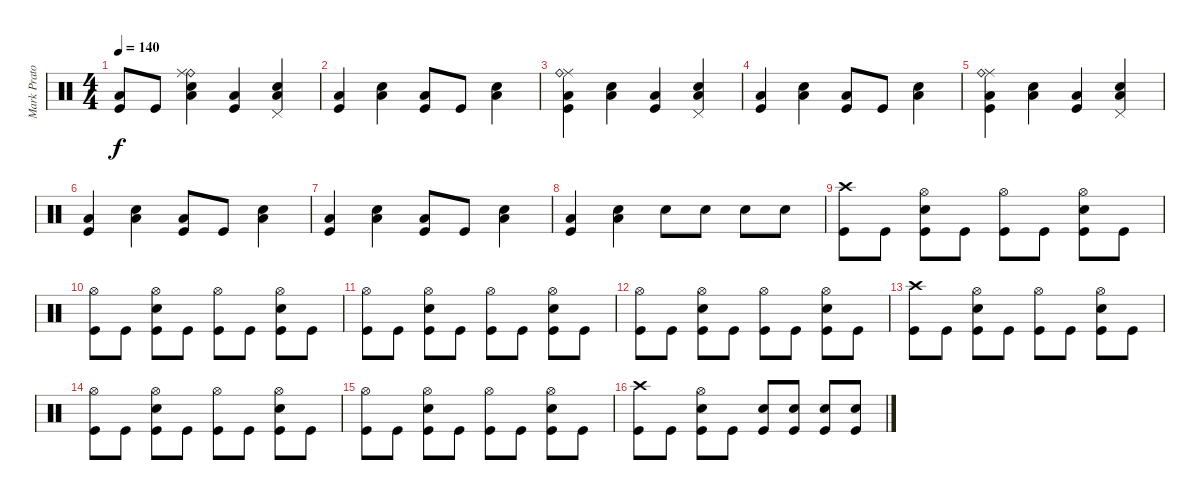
\track ("Mark Prator" "Mark Prato") {instrument percussion}
\staff {score}
\articulation defaults
\ts (4 4)
\tempo 140
\clef neutral
\ks c
("Low Floor Tom (hit)" "Kick (hit)").8{dy f} "Kick (hit)".8 ("Low Floor Tom (hit)" "Ride (bell)" "Ride (middle)" "Snare (hit) 2").4 ("Low Floor Tom (hit)" "Kick (hit)").4 ("Low Floor Tom (hit)" "Snare (hit) 2" "Pedal Hi-Hat (hit)").4 |
("Low Floor Tom (hit)" "Kick (hit)").4 ("Low Floor Tom (hit)" "Snare (hit) 2").4 ("Low Floor Tom (hit)" "Kick (hit)").8 "Kick (hit)".8 ("Low Floor Tom (hit)" "Snare (hit) 2").4 |
("Ride (middle)" "Ride (bell)" "Low Floor Tom (hit)" "Kick (hit)").4 ("Low Floor Tom (hit)" "Snare (hit) 2").4 ("Low Floor Tom (hit)" "Kick (hit)").4 ("Low Floor Tom (hit)" "Snare (hit) 2" "Pedal Hi-Hat (hit)").4 |
("Low Floor Tom (hit)" "Kick (hit)").4 ("Low Floor Tom (hit)" "Snare (hit) 2").4 ("Low Floor Tom (hit)" "Kick (hit)").8 "Kick (hit)".8 ("Low Floor Tom (hit)" "Snare (hit) 2").4 |
("Ride (middle)" "Ride (bell)" "Low Floor Tom (hit)" "Kick (hit)").4 ("Low Floor Tom (hit)" "Snare (hit) 2").4 ("Low Floor Tom (hit)" "Kick (hit)").4 ("Low Floor Tom (hit)" "Snare (hit) 2" "Pedal Hi-Hat (hit)").4 |
("Low Floor Tom (hit)" "Kick (hit)").4 ("Low Floor Tom (hit)" "Snare (hit) 2").4 ("Low Floor Tom (hit)" "Kick (hit)").8 "Kick (hit)".8 ("Low Floor Tom (hit)" "Snare (hit) 2").4 |
("Low Floor Tom (hit)" "Kick (hit)").4 ("Low Floor Tom (hit)" "Snare (hit) 2").4 ("Low Floor Tom (hit)" "Kick (hit)").8 "Kick (hit)".8 ("Low Floor Tom (hit)" "Snare (hit) 2").4 |
("Low Floor Tom (hit)" "Kick (hit)").4 ("Low Floor Tom (hit)" "Snare (hit) 2").4 "Snare (hit) 2".8 "Snare (hit) 2".8 "Snare (hit) 2".8 "Snare (hit) 2".8 |
("Crash high (hit)" "Kick (hit)").8 "Kick (hit)".8 ("Hi-Hat (open)" "Snare (hit) 2" "Kick (hit)").8 "Kick (hit)".8 ("Hi-Hat (open)" "Kick (hit)").8 "Kick (hit)".8 ("Hi-Hat (open)" "Snare (hit) 2" "Kick (hit)").8 "Kick (hit)".8 |
("Hi-Hat (open)" "Kick (hit)").8 "Kick (hit)".8 ("Hi-Hat (open)" "Snare (hit) 2" "Kick (hit)").8 "Kick (hit)".8 ("Hi-Hat (open)" "Kick (hit)").8 "Kick (hit)".8 ("Hi-Hat (open)" "Snare (hit) 2" "Kick (hit)").8 "Kick (hit)".8 |
("Hi-Hat (open)" "Kick (hit)").8 "Kick (hit)".8 ("Hi-Hat (open)" "Snare (hit) 2" "Kick (hit)").8 "Kick (hit)".8 ("Hi-Hat (open)" "Kick (hit)").8 "Kick (hit)".8 ("Hi-Hat (open)" "Snare (hit) 2" "Kick (hit)").8 "Kick (hit)".8 |
("Hi-Hat (open)" "Kick (hit)").8 "Kick (hit)".8 ("Hi-Hat (open)" "Snare (hit) 2" "Kick (hit)").8 "Kick (hit)".8 ("Hi-Hat (open)" "Kick (hit)").8 "Kick (hit)".8 ("Hi-Hat (open)" "Snare (hit) 2" "Kick (hit)").8 "Kick (hit)".8 |
("Crash high (hit)" "Kick (hit)").8 "Kick (hit)".8 ("Hi-Hat (open)" "Snare (hit) 2" "Kick (hit)").8 "Kick (hit)".8 ("Hi-Hat (open)" "Kick (hit)").8 "Kick (hit)".8 ("Hi-Hat (open)" "Snare (hit) 2" "Kick (hit)").8 "Kick (hit)".8 |
("Hi-Hat (open)" "Kick (hit)").8 "Kick (hit)".8 ("Hi-Hat (open)" "Snare (hit) 2" "Kick (hit)").8 "Kick (hit)".8 ("Hi-Hat (open)" "Kick (hit)").8 "Kick (hit)".8 ("Hi-Hat (open)" "Snare (hit) 2" "Kick (hit)").8 "Kick (hit)".8 |
("Hi-Hat (open)" "Kick (hit)").8 "Kick (hit)".8 ("Hi-Hat (open)" "Snare (hit) 2" "Kick (hit)").8 "Kick (hit)".8 ("Hi-Hat (open)" "Kick (hit)").8 "Kick (hit)".8 ("Hi-Hat (open)" "Snare (hit) 2" "Kick (hit)").8 "Kick (hit)".8 |
("Crash high (hit)" "Kick (hit)").8 "Kick (hit)".8 ("Hi-Hat (open)" "Snare (hit) 2" "Kick (hit)").8 "Kick (hit)".8 ("Snare (hit) 2" "Kick (hit)").8 ("Snare (hit) 2" "Kick (hit)").8 ("Snare (hit) 2" "Kick (hit)").8 ("Snare (hit) 2" "Kick (hit)").8
